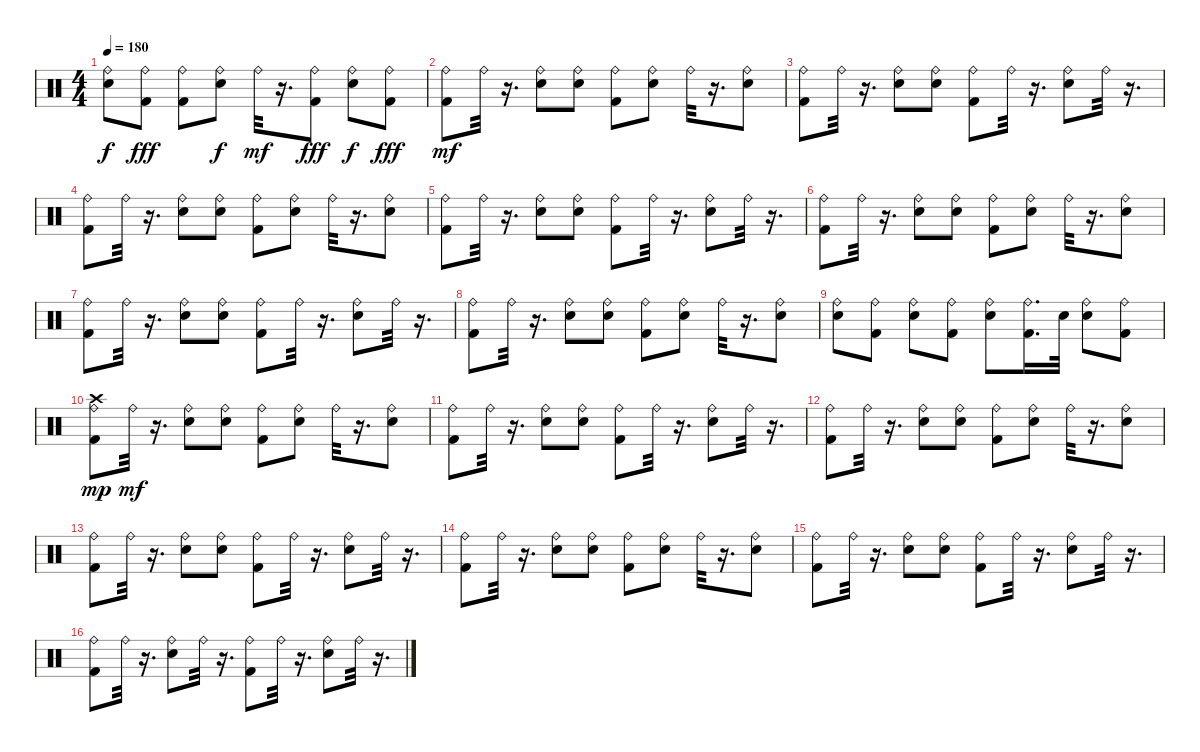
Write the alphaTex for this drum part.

\track "" {instrument percussion}
\staff {score}
\articulation defaults
\ts (4 4)
\tempo 180
\clef neutral
\ks c
("Ride (bell)" "Snare (hit) 2").8{dy f} ("Ride (bell)" "Kick (hit) 2").8{dy fff} ("Ride (bell)" "Kick (hit) 2").8 ("Ride (bell)" "Snare (hit) 2").8{dy f} "Ride (bell)".32{dy mf} r.16{d} ("Ride (bell)" "Kick (hit) 2").8{dy fff} ("Ride (bell)" "Snare (hit) 2").8{dy f} ("Ride (bell)" "Kick (hit) 2").8{dy fff} |
("Ride (bell)" "Kick (hit) 2").8{dy mf} "Ride (bell)".32 r.16{d} ("Ride (bell)" "Snare (hit) 2").8 ("Ride (bell)" "Snare (hit) 2").8 ("Ride (bell)" "Kick (hit) 2").8 ("Ride (bell)" "Snare (hit) 2").8 "Ride (bell)".32 r.16{d} ("Ride (bell)" "Snare (hit) 2").8 |
("Ride (bell)" "Kick (hit) 2").8 "Ride (bell)".32 r.16{d} ("Ride (bell)" "Snare (hit) 2").8 ("Ride (bell)" "Snare (hit) 2").8 ("Ride (bell)" "Kick (hit) 2").8 "Ride (bell)".32 r.16{d} ("Ride (bell)" "Snare (hit) 2").8 "Ride (bell)".32 r.16{d} |
("Ride (bell)" "Kick (hit) 2").8 "Ride (bell)".32 r.16{d} ("Ride (bell)" "Snare (hit) 2").8 ("Ride (bell)" "Snare (hit) 2").8 ("Ride (bell)" "Kick (hit) 2").8 ("Ride (bell)" "Snare (hit) 2").8 "Ride (bell)".32 r.16{d} ("Ride (bell)" "Snare (hit) 2").8 |
("Ride (bell)" "Kick (hit) 2").8 "Ride (bell)".32 r.16{d} ("Ride (bell)" "Snare (hit) 2").8 ("Ride (bell)" "Snare (hit) 2").8 ("Ride (bell)" "Kick (hit) 2").8 "Ride (bell)".32 r.16{d} ("Ride (bell)" "Snare (hit) 2").8 "Ride (bell)".32 r.16{d} |
("Ride (bell)" "Kick (hit) 2").8 "Ride (bell)".32 r.16{d} ("Ride (bell)" "Snare (hit) 2").8 ("Ride (bell)" "Snare (hit) 2").8 ("Ride (bell)" "Kick (hit) 2").8 ("Ride (bell)" "Snare (hit) 2").8 "Ride (bell)".32 r.16{d} ("Ride (bell)" "Snare (hit) 2").8 |
("Ride (bell)" "Kick (hit) 2").8 "Ride (bell)".32 r.16{d} ("Ride (bell)" "Snare (hit) 2").8 ("Ride (bell)" "Snare (hit) 2").8 ("Ride (bell)" "Kick (hit) 2").8 "Ride (bell)".32 r.16{d} ("Ride (bell)" "Snare (hit) 2").8 "Ride (bell)".32 r.16{d} |
("Ride (bell)" "Kick (hit) 2").8 "Ride (bell)".32 r.16{d} ("Ride (bell)" "Snare (hit) 2").8 ("Ride (bell)" "Snare (hit) 2").8 ("Ride (bell)" "Kick (hit) 2").8 ("Ride (bell)" "Snare (hit) 2").8 "Ride (bell)".32 r.16{d} ("Ride (bell)" "Snare (hit) 2").8 |
("Ride (bell)" "Snare (hit) 2").8 ("Ride (bell)" "Kick (hit) 2").8 ("Ride (bell)" "Snare (hit) 2").8 ("Ride (bell)" "Kick (hit) 2").8 ("Ride (bell)" "Snare (hit) 2").8 ("Ride (bell)" "Kick (hit) 2").16{d} "Snare (hit) 2".32 ("Ride (bell)" "Snare (hit) 2").8 ("Ride (bell)" "Kick (hit) 2").8 |
("Ride (bell)" "Crash high (hit)" "Kick (hit) 2").8{dy mp} "Ride (bell)".32{dy mf} r.16{d} ("Ride (bell)" "Snare (hit) 2").8 ("Ride (bell)" "Snare (hit) 2").8 ("Ride (bell)" "Kick (hit) 2").8 ("Ride (bell)" "Snare (hit) 2").8 "Ride (bell)".32 r.16{d} ("Ride (bell)" "Snare (hit) 2").8 |
("Ride (bell)" "Kick (hit) 2").8 "Ride (bell)".32 r.16{d} ("Ride (bell)" "Snare (hit) 2").8 ("Ride (bell)" "Snare (hit) 2").8 ("Ride (bell)" "Kick (hit) 2").8 "Ride (bell)".32 r.16{d} ("Ride (bell)" "Snare (hit) 2").8 "Ride (bell)".32 r.16{d} |
("Ride (bell)" "Kick (hit) 2").8 "Ride (bell)".32 r.16{d} ("Ride (bell)" "Snare (hit) 2").8 ("Ride (bell)" "Snare (hit) 2").8 ("Ride (bell)" "Kick (hit) 2").8 ("Ride (bell)" "Snare (hit) 2").8 "Ride (bell)".32 r.16{d} ("Ride (bell)" "Snare (hit) 2").8 |
("Ride (bell)" "Kick (hit) 2").8 "Ride (bell)".32 r.16{d} ("Ride (bell)" "Snare (hit) 2").8 ("Ride (bell)" "Snare (hit) 2").8 ("Ride (bell)" "Kick (hit) 2").8 "Ride (bell)".32 r.16{d} ("Ride (bell)" "Snare (hit) 2").8 "Ride (bell)".32 r.16{d} |
("Ride (bell)" "Kick (hit) 2").8 "Ride (bell)".32 r.16{d} ("Ride (bell)" "Snare (hit) 2").8 ("Ride (bell)" "Snare (hit) 2").8 ("Ride (bell)" "Kick (hit) 2").8 ("Ride (bell)" "Snare (hit) 2").8 "Ride (bell)".32 r.16{d} ("Ride (bell)" "Snare (hit) 2").8 |
("Ride (bell)" "Kick (hit) 2").8 "Ride (bell)".32 r.16{d} ("Ride (bell)" "Snare (hit) 2").8 ("Ride (bell)" "Snare (hit) 2").8 ("Ride (bell)" "Kick (hit) 2").8 "Ride (bell)".32 r.16{d} ("Ride (bell)" "Snare (hit) 2").8 "Ride (bell)".32 r.16{d} |
("Ride (bell)" "Kick (hit) 2").8 "Ride (bell)".32 r.16{d} ("Ride (bell)" "Snare (hit) 2").8 "Ride (bell)".32 r.16{d} ("Ride (bell)" "Kick (hit) 2").8 "Ride (bell)".32 r.16{d} ("Ride (bell)" "Snare (hit) 2").8 "Ride (bell)".32 r.16{d}
